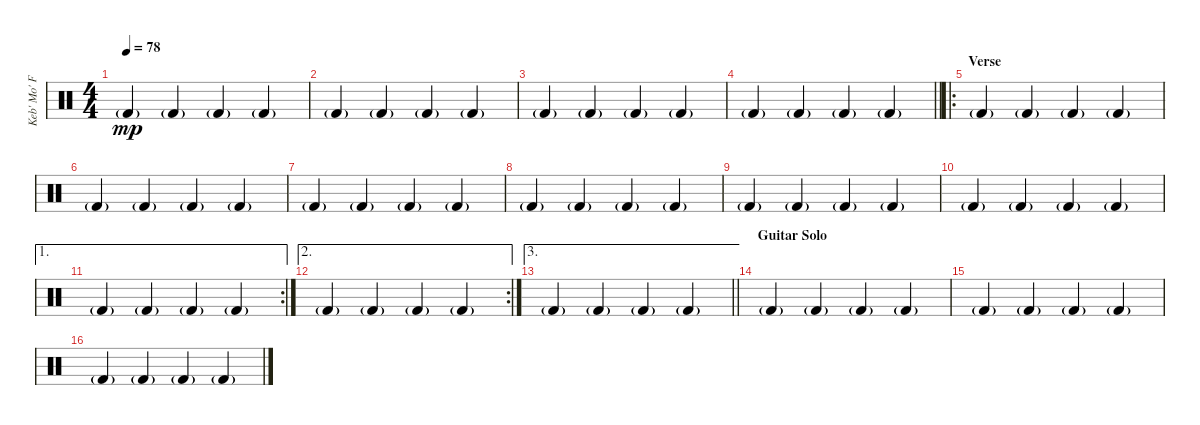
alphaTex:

\track ("Keb' Mo' Footstomp" "Keb' Mo' F") {instrument percussion}
\staff {score}
\articulation defaults
\ts (4 4)
\tempo 78
\clef neutral
\ks c "Kick (hit) 2"{g}.4{dy mp} "Kick (hit) 2"{g}.4 "Kick (hit) 2"{g}.4 "Kick (hit) 2"{g}.4
|
"Kick (hit) 2"{g}.4 "Kick (hit) 2"{g}.4 "Kick (hit) 2"{g}.4 "Kick (hit) 2"{g}.4 |
"Kick (hit) 2"{g}.4 "Kick (hit) 2"{g}.4 "Kick (hit) 2"{g}.4 "Kick (hit) 2"{g}.4 |
\barLineRight lightlight "Kick (hit) 2"{g}.4 "Kick (hit) 2"{g}.4 "Kick (hit) 2"{g}.4 "Kick (hit) 2"{g}.4
|
\ro
\section ("" "Verse")
"Kick (hit) 2"{g}.4 "Kick (hit) 2"{g}.4 "Kick (hit) 2"{g}.4 "Kick (hit) 2"{g}.4 |
"Kick (hit) 2"{g}.4 "Kick (hit) 2"{g}.4 "Kick (hit) 2"{g}.4 "Kick (hit) 2"{g}.4 |
"Kick (hit) 2"{g}.4 "Kick (hit) 2"{g}.4 "Kick (hit) 2"{g}.4 "Kick (hit) 2"{g}.4 |
"Kick (hit) 2"{g}.4 "Kick (hit) 2"{g}.4 "Kick (hit) 2"{g}.4 "Kick (hit) 2"{g}.4 |
"Kick (hit) 2"{g}.4 "Kick (hit) 2"{g}.4 "Kick (hit) 2"{g}.4 "Kick (hit) 2"{g}.4 |
"Kick (hit) 2"{g}.4 "Kick (hit) 2"{g}.4 "Kick (hit) 2"{g}.4 "Kick (hit) 2"{g}.4 |
\ae 1
\rc 2 "Kick (hit) 2"{g}.4 "Kick (hit) 2"{g}.4 "Kick (hit) 2"{g}.4 "Kick (hit) 2"{g}.4
|
\ae 2
\rc 2 "Kick (hit) 2"{g}.4 "Kick (hit) 2"{g}.4 "Kick (hit) 2"{g}.4 "Kick (hit) 2"{g}.4
|
\ae 3
\barLineRight lightlight "Kick (hit) 2"{g}.4 "Kick (hit) 2"{g}.4 "Kick (hit) 2"{g}.4 "Kick (hit) 2"{g}.4
|
\section ("" "Guitar Solo")
"Kick (hit) 2"{g}.4 "Kick (hit) 2"{g}.4 "Kick (hit) 2"{g}.4 "Kick (hit) 2"{g}.4 |
"Kick (hit) 2"{g}.4 "Kick (hit) 2"{g}.4 "Kick (hit) 2"{g}.4 "Kick (hit) 2"{g}.4 |
"Kick (hit) 2"{g}.4 "Kick (hit) 2"{g}.4 "Kick (hit) 2"{g}.4 "Kick (hit) 2"{g}.4
